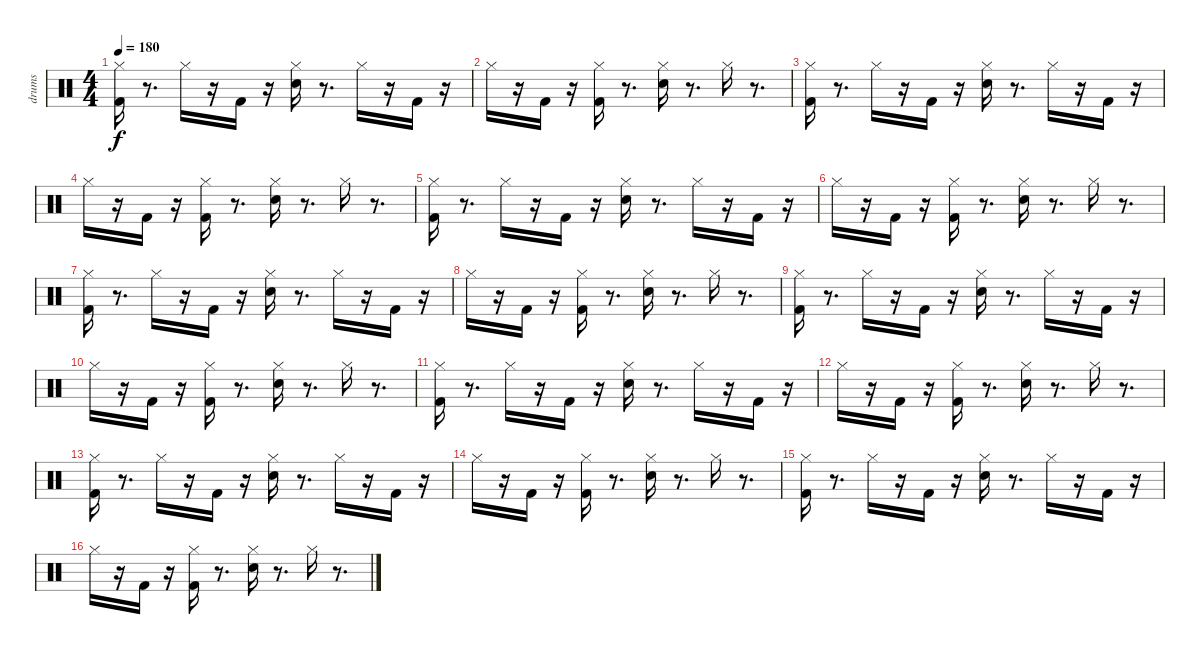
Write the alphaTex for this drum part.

\track ("drums" "drums") {instrument percussion}
\staff {score}
\articulation defaults
\ts (4 4)
\tempo 180
\clef neutral
\ks c
("Kick (hit) 2" "Hi-Hat (closed)").16{dy f} r.8{d} "Hi-Hat (closed)".16 r.16 "Kick (hit) 2".16 r.16 ("Electric Snare (hit)" "Hi-Hat (closed)").16 r.8{d} "Hi-Hat (closed)".16 r.16 "Kick (hit) 2".16 r.16 |
"Hi-Hat (closed)".16 r.16 "Kick (hit) 2".16 r.16 ("Hi-Hat (closed)" "Kick (hit) 2").16 r.8{d} ("Hi-Hat (closed)" "Electric Snare (hit)").16 r.8{d} "Hi-Hat (closed)".16 r.8{d} |
("Kick (hit) 2" "Hi-Hat (closed)").16 r.8{d} "Hi-Hat (closed)".16 r.16 "Kick (hit) 2".16 r.16 ("Electric Snare (hit)" "Hi-Hat (closed)").16 r.8{d} "Hi-Hat (closed)".16 r.16 "Kick (hit) 2".16 r.16 |
"Hi-Hat (closed)".16 r.16 "Kick (hit) 2".16 r.16 ("Hi-Hat (closed)" "Kick (hit) 2").16 r.8{d} ("Hi-Hat (closed)" "Electric Snare (hit)").16 r.8{d} "Hi-Hat (closed)".16 r.8{d} |
("Kick (hit) 2" "Hi-Hat (closed)").16 r.8{d} "Hi-Hat (closed)".16 r.16 "Kick (hit) 2".16 r.16 ("Electric Snare (hit)" "Hi-Hat (closed)").16 r.8{d} "Hi-Hat (closed)".16 r.16 "Kick (hit) 2".16 r.16 |
"Hi-Hat (closed)".16 r.16 "Kick (hit) 2".16 r.16 ("Hi-Hat (closed)" "Kick (hit) 2").16 r.8{d} ("Hi-Hat (closed)" "Electric Snare (hit)").16 r.8{d} "Hi-Hat (closed)".16 r.8{d} |
("Kick (hit) 2" "Hi-Hat (closed)").16 r.8{d} "Hi-Hat (closed)".16 r.16 "Kick (hit) 2".16 r.16 ("Electric Snare (hit)" "Hi-Hat (closed)").16 r.8{d} "Hi-Hat (closed)".16 r.16 "Kick (hit) 2".16 r.16 |
"Hi-Hat (closed)".16 r.16 "Kick (hit) 2".16 r.16 ("Hi-Hat (closed)" "Kick (hit) 2").16 r.8{d} ("Hi-Hat (closed)" "Electric Snare (hit)").16 r.8{d} "Hi-Hat (closed)".16 r.8{d} |
("Kick (hit) 2" "Hi-Hat (closed)").16 r.8{d} "Hi-Hat (closed)".16 r.16 "Kick (hit) 2".16 r.16 ("Electric Snare (hit)" "Hi-Hat (closed)").16 r.8{d} "Hi-Hat (closed)".16 r.16 "Kick (hit) 2".16 r.16 |
"Hi-Hat (closed)".16 r.16 "Kick (hit) 2".16 r.16 ("Hi-Hat (closed)" "Kick (hit) 2").16 r.8{d} ("Hi-Hat (closed)" "Electric Snare (hit)").16 r.8{d} "Hi-Hat (closed)".16 r.8{d} |
("Kick (hit) 2" "Hi-Hat (closed)").16 r.8{d} "Hi-Hat (closed)".16 r.16 "Kick (hit) 2".16 r.16 ("Electric Snare (hit)" "Hi-Hat (closed)").16 r.8{d} "Hi-Hat (closed)".16 r.16 "Kick (hit) 2".16 r.16 |
"Hi-Hat (closed)".16 r.16 "Kick (hit) 2".16 r.16 ("Hi-Hat (closed)" "Kick (hit) 2").16 r.8{d} ("Hi-Hat (closed)" "Electric Snare (hit)").16 r.8{d} "Hi-Hat (closed)".16 r.8{d} |
("Kick (hit) 2" "Hi-Hat (closed)").16 r.8{d} "Hi-Hat (closed)".16 r.16 "Kick (hit) 2".16 r.16 ("Electric Snare (hit)" "Hi-Hat (closed)").16 r.8{d} "Hi-Hat (closed)".16 r.16 "Kick (hit) 2".16 r.16 |
"Hi-Hat (closed)".16 r.16 "Kick (hit) 2".16 r.16 ("Hi-Hat (closed)" "Kick (hit) 2").16 r.8{d} ("Hi-Hat (closed)" "Electric Snare (hit)").16 r.8{d} "Hi-Hat (closed)".16 r.8{d} |
("Kick (hit) 2" "Hi-Hat (closed)").16 r.8{d} "Hi-Hat (closed)".16 r.16 "Kick (hit) 2".16 r.16 ("Electric Snare (hit)" "Hi-Hat (closed)").16 r.8{d} "Hi-Hat (closed)".16 r.16 "Kick (hit) 2".16 r.16 |
"Hi-Hat (closed)".16 r.16 "Kick (hit) 2".16 r.16 ("Hi-Hat (closed)" "Kick (hit) 2").16 r.8{d} ("Hi-Hat (closed)" "Electric Snare (hit)").16 r.8{d} "Hi-Hat (closed)".16 r.8{d}
